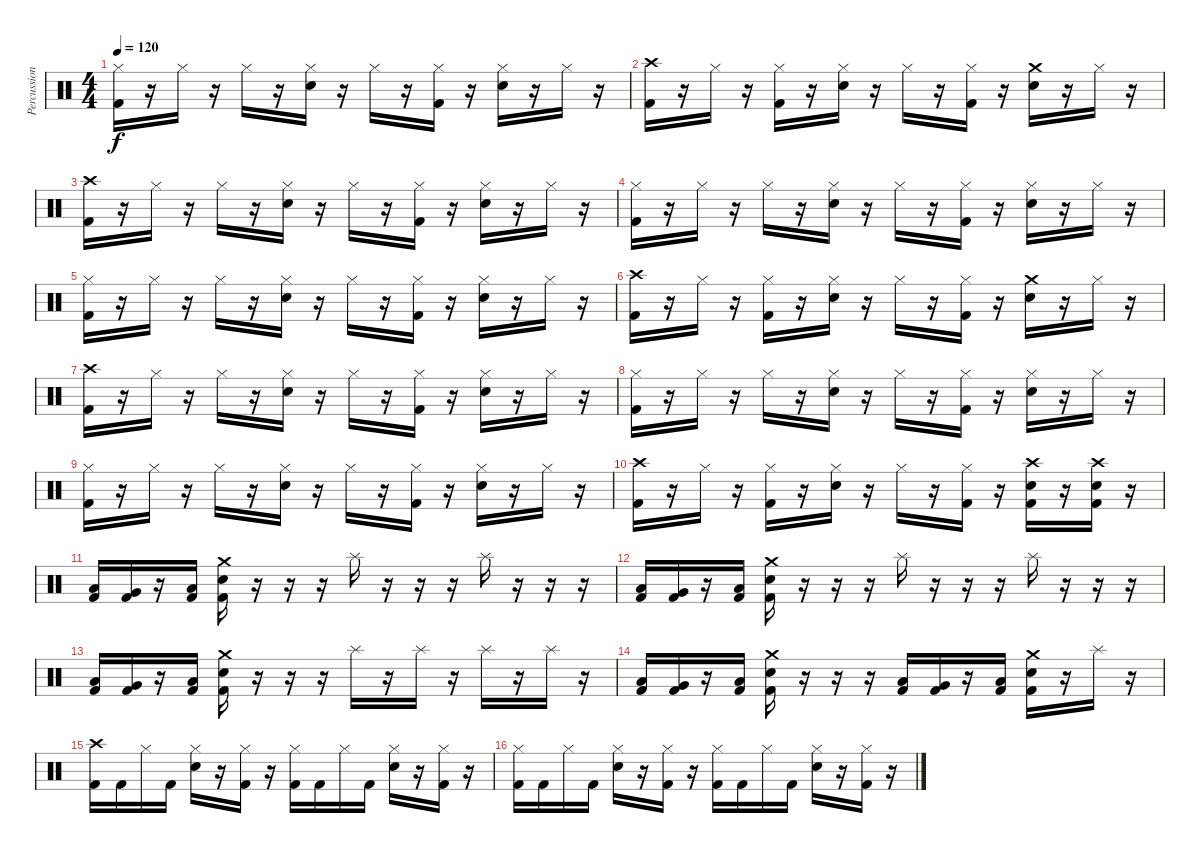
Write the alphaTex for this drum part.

\track ("Percussion" "Percussion") {instrument percussion}
\staff {score}
\articulation defaults
\ts (4 4)
\tempo 120
\clef neutral
\ks c
("Hi-Hat (closed)" "Kick (hit) 2").16{dy f} r.16 "Hi-Hat (closed)".16 r.16 "Hi-Hat (closed)".16 r.16 ("Hi-Hat (closed)" "Snare (hit) 2").16 r.16 "Hi-Hat (closed)".16 r.16 ("Hi-Hat (closed)" "Kick (hit) 2").16 r.16 ("Hi-Hat (closed)" "Snare (hit) 2").16 r.16 "Hi-Hat (closed)".16 r.16 |
("Crash high (hit)" "Kick (hit) 2").16 r.16 "Hi-Hat (closed)".16 r.16 ("Hi-Hat (closed)" "Kick (hit) 2").16 r.16 ("Hi-Hat (closed)" "Snare (hit) 2").16 r.16 "Hi-Hat (closed)".16 r.16 ("Hi-Hat (closed)" "Kick (hit) 2").16 r.16 ("Crash medium (hit)" "Snare (hit) 2").16 r.16 "Hi-Hat (closed)".16 r.16 |
("Crash high (hit)" "Kick (hit) 2").16 r.16 "Hi-Hat (closed)".16 r.16 "Hi-Hat (closed)".16 r.16 ("Hi-Hat (closed)" "Snare (hit) 2").16 r.16 "Hi-Hat (closed)".16 r.16 ("Hi-Hat (closed)" "Kick (hit) 2").16 r.16 ("Hi-Hat (closed)" "Snare (hit) 2").16 r.16 "Hi-Hat (closed)".16 r.16 |
("Hi-Hat (closed)" "Kick (hit) 2").16 r.16 "Hi-Hat (closed)".16 r.16 "Hi-Hat (closed)".16 r.16 ("Hi-Hat (closed)" "Snare (hit) 2").16 r.16 "Hi-Hat (closed)".16 r.16 ("Hi-Hat (closed)" "Kick (hit) 2").16 r.16 ("Hi-Hat (closed)" "Snare (hit) 2").16 r.16 "Hi-Hat (closed)".16 r.16 |
("Hi-Hat (closed)" "Kick (hit) 2").16 r.16 "Hi-Hat (closed)".16 r.16 "Hi-Hat (closed)".16 r.16 ("Hi-Hat (closed)" "Snare (hit) 2").16 r.16 "Hi-Hat (closed)".16 r.16 ("Hi-Hat (closed)" "Kick (hit) 2").16 r.16 ("Hi-Hat (closed)" "Snare (hit) 2").16 r.16 "Hi-Hat (closed)".16 r.16 |
("Crash high (hit)" "Kick (hit) 2").16 r.16 "Hi-Hat (closed)".16 r.16 ("Hi-Hat (closed)" "Kick (hit) 2").16 r.16 ("Hi-Hat (closed)" "Snare (hit) 2").16 r.16 "Hi-Hat (closed)".16 r.16 ("Hi-Hat (closed)" "Kick (hit) 2").16 r.16 ("Crash medium (hit)" "Snare (hit) 2").16 r.16 "Hi-Hat (closed)".16 r.16 |
("Crash high (hit)" "Kick (hit) 2").16 r.16 "Hi-Hat (closed)".16 r.16 "Hi-Hat (closed)".16 r.16 ("Hi-Hat (closed)" "Snare (hit) 2").16 r.16 "Hi-Hat (closed)".16 r.16 ("Hi-Hat (closed)" "Kick (hit) 2").16 r.16 ("Hi-Hat (closed)" "Snare (hit) 2").16 r.16 "Hi-Hat (closed)".16 r.16 |
("Hi-Hat (closed)" "Kick (hit) 2").16 r.16 "Hi-Hat (closed)".16 r.16 "Hi-Hat (closed)".16 r.16 ("Hi-Hat (closed)" "Snare (hit) 2").16 r.16 "Hi-Hat (closed)".16 r.16 ("Hi-Hat (closed)" "Kick (hit) 2").16 r.16 ("Hi-Hat (closed)" "Snare (hit) 2").16 r.16 "Hi-Hat (closed)".16 r.16 |
("Hi-Hat (closed)" "Kick (hit) 2").16 r.16 "Hi-Hat (closed)".16 r.16 "Hi-Hat (closed)".16 r.16 ("Hi-Hat (closed)" "Snare (hit) 2").16 r.16 "Hi-Hat (closed)".16 r.16 ("Hi-Hat (closed)" "Kick (hit) 2").16 r.16 ("Hi-Hat (closed)" "Snare (hit) 2").16 r.16 "Hi-Hat (closed)".16 r.16 |
("Crash high (hit)" "Kick (hit) 2").16 r.16 "Hi-Hat (closed)".16 r.16 ("Hi-Hat (closed)" "Kick (hit) 2").16 r.16 ("Hi-Hat (closed)" "Snare (hit) 2").16 r.16 "Hi-Hat (closed)".16 r.16 ("Hi-Hat (closed)" "Kick (hit) 2").16 r.16 ("Crash high (hit)" "Snare (hit) 2" "Kick (hit) 2").16 r.16 ("Crash high (hit)" "Snare (hit) 2" "Kick (hit) 2").16 r.16 |
("Low Tom (hit)" "Kick (hit) 2").16 ("Very Low Tom (hit)" "Kick (hit) 2").16 r.16 ("Low Floor Tom (hit)" "Kick (hit) 2").16 ("Crash medium (hit)" "Snare (hit) 2" "Kick (hit) 2").16 r.16 r.16 r.16 "Splash (hit)".16 r.16 r.16 r.16 "Splash (hit)".16 r.16 r.16 r.16 |
("Low Tom (hit)" "Kick (hit) 2").16 ("Very Low Tom (hit)" "Kick (hit) 2").16 r.16 ("Low Floor Tom (hit)" "Kick (hit) 2").16 ("Crash medium (hit)" "Snare (hit) 2" "Kick (hit) 2").16 r.16 r.16 r.16 "Splash (hit)".16 r.16 r.16 r.16 "Splash (hit)".16 r.16 r.16 r.16 |
("Low Tom (hit)" "Kick (hit) 2").16 ("Very Low Tom (hit)" "Kick (hit) 2").16 r.16 ("Low Floor Tom (hit)" "Kick (hit) 2").16 ("Crash medium (hit)" "Snare (hit) 2" "Kick (hit) 2").16 r.16 r.16 r.16 "Splash (hit)".16 r.16 "Splash (hit)".16 r.16 "Splash (hit)".16 r.16 "Splash (hit)".16 r.16 |
("Low Tom (hit)" "Kick (hit) 2").16 ("Very Low Tom (hit)" "Kick (hit) 2").16 r.16 ("Low Floor Tom (hit)" "Kick (hit) 2").16 ("Crash medium (hit)" "Snare (hit) 2" "Kick (hit) 2").16 r.16 r.16 r.16 ("Low Tom (hit)" "Kick (hit) 2").16 ("Very Low Tom (hit)" "Kick (hit) 2").16 r.16 ("Low Floor Tom (hit)" "Kick (hit) 2").16 ("Crash medium (hit)" "Snare (hit) 2" "Kick (hit) 2").16 r.16 "Splash (hit)".16 r.16 |
("Crash high (hit)" "Kick (hit) 2").16 "Kick (hit) 2".16 "Hi-Hat (closed)".16 "Kick (hit) 2".16 ("Hi-Hat (closed)" "Snare (hit) 2").16 r.16 ("Hi-Hat (closed)" "Kick (hit) 2").16 r.16 ("Hi-Hat (closed)" "Kick (hit) 2").16 "Kick (hit) 2".16 "Hi-Hat (closed)".16 "Kick (hit) 2".16 ("Hi-Hat (closed)" "Snare (hit) 2").16 r.16 ("Hi-Hat (closed)" "Kick (hit) 2").16 r.16 |
("Hi-Hat (closed)" "Kick (hit) 2").16 "Kick (hit) 2".16 "Hi-Hat (closed)".16 "Kick (hit) 2".16 ("Hi-Hat (closed)" "Snare (hit) 2").16 r.16 ("Hi-Hat (closed)" "Kick (hit) 2").16 r.16 ("Hi-Hat (closed)" "Kick (hit) 2").16 "Kick (hit) 2".16 "Hi-Hat (closed)".16 "Kick (hit) 2".16 ("Hi-Hat (closed)" "Snare (hit) 2").16 r.16 ("Hi-Hat (closed)" "Kick (hit) 2").16 r.16
